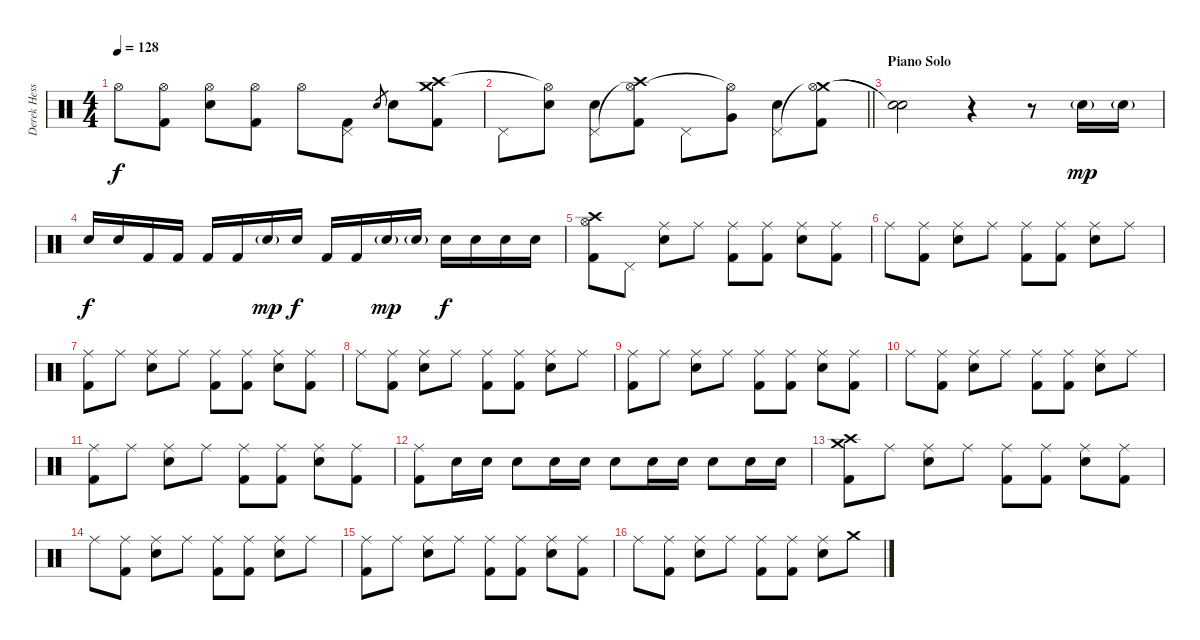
\track ("Derek Hess (Drums and Percussion)" "Derek Hess") {instrument percussion}
\staff {score}
\articulation defaults
\ts (4 4)
\tempo 128
\clef neutral
\ks c "Hi-Hat (open)".8{dy f}
("Hi-Hat (open)" "Kick (hit) 2").8 ("Snare (hit) 2" "Hi-Hat (open)").8 ("Hi-Hat (open)" "Kick (hit) 2").8 "Hi-Hat (open)".8 ("Pedal Hi-Hat (hit)" "Kick (hit) 2").8 "Snare (hit) 2".8{gr} "Snare (hit) 2".8 ("Crash medium (hit)" "Crash high (hit)" "Kick (hit) 2").8 |
\barLineRight lightlight "Pedal Hi-Hat (hit)".8
("Snare (hit) 2" "Hi-Hat (open)"{t}).8 ("Snare (hit) 2" "Pedal Hi-Hat (hit)").8 ("Crash high (hit)" "Hi-Hat (open)"{t} "Kick (hit) 2").8 "Pedal Hi-Hat (hit)".8 ("Very Low Tom (hit)" "Hi-Hat (open)"{t}).8 ("Snare (hit) 2" "Pedal Hi-Hat (hit)").8 ("Crash medium (hit)" "Hi-Hat (open)"{t} "Kick (hit) 2").8 |
\section ("" "Piano Solo")
("Snare (hit)"{t} "Snare (hit)"{t}).2 r.4 r.8 "Snare (hit) 2"{g}.16{dy mp} "Snare (hit) 2"{g}.16 |
"Snare (hit) 2".16{dy f} "Snare (hit) 2".16 "Kick (hit) 2".16 "Kick (hit) 2".16 "Kick (hit) 2".16 "Kick (hit) 2".16 "Snare (hit) 2"{g}.16{dy mp} "Snare (hit) 2".16{dy f} "Kick (hit) 2".16 "Kick (hit) 2".16 "Snare (hit) 2"{g}.16{dy mp} "Snare (hit) 2"{g}.16 "Snare (hit) 2".16{dy f} "Snare (hit) 2".16 "Snare (hit) 2".16 "Snare (hit) 2".16 |
("Crash high (hit)" "Hi-Hat (open)" "Kick (hit) 2").8 "Pedal Hi-Hat (hit)".8 ("Ride (middle)" "Snare (hit) 2").8 "Ride (middle)".8 ("Ride (middle)" "Kick (hit) 2").8 ("Ride (middle)" "Kick (hit) 2").8 ("Ride (middle)" "Snare (hit) 2").8 ("Ride (middle)" "Kick (hit) 2").8 |
"Ride (middle)".8 ("Ride (middle)" "Kick (hit) 2").8 ("Ride (middle)" "Snare (hit) 2").8 "Ride (middle)".8 ("Ride (middle)" "Kick (hit) 2").8 ("Ride (middle)" "Kick (hit) 2").8 ("Ride (middle)" "Snare (hit) 2").8 "Ride (middle)".8 |
("Ride (middle)" "Kick (hit) 2").8 "Ride (middle)".8 ("Ride (middle)" "Snare (hit) 2").8 "Ride (middle)".8 ("Ride (middle)" "Kick (hit) 2").8 ("Ride (middle)" "Kick (hit) 2").8 ("Ride (middle)" "Snare (hit) 2").8 ("Ride (middle)" "Kick (hit) 2").8 |
"Ride (middle)".8 ("Ride (middle)" "Kick (hit) 2").8 ("Ride (middle)" "Snare (hit) 2").8 "Ride (middle)".8 ("Ride (middle)" "Kick (hit) 2").8 ("Ride (middle)" "Kick (hit) 2").8 ("Ride (middle)" "Snare (hit) 2").8 "Ride (middle)".8 |
("Ride (middle)" "Kick (hit) 2").8 "Ride (middle)".8 ("Ride (middle)" "Snare (hit) 2").8 "Ride (middle)".8 ("Ride (middle)" "Kick (hit) 2").8 ("Ride (middle)" "Kick (hit) 2").8 ("Ride (middle)" "Snare (hit) 2").8 ("Ride (middle)" "Kick (hit) 2").8 |
"Ride (middle)".8 ("Ride (middle)" "Kick (hit) 2").8 ("Ride (middle)" "Snare (hit) 2").8 "Ride (middle)".8 ("Ride (middle)" "Kick (hit) 2").8 ("Ride (middle)" "Kick (hit) 2").8 ("Ride (middle)" "Snare (hit) 2").8 "Ride (middle)".8 |
("Ride (middle)" "Kick (hit) 2").8 "Ride (middle)".8 ("Ride (middle)" "Snare (hit) 2").8 "Ride (middle)".8 ("Ride (middle)" "Kick (hit) 2").8 ("Ride (middle)" "Kick (hit) 2").8 ("Ride (middle)" "Snare (hit) 2").8 ("Ride (middle)" "Kick (hit) 2").8 |
("Ride (middle)" "Kick (hit) 2").8 "Snare (hit) 2".16 "Snare (hit) 2".16 "Snare (hit) 2".8 "Snare (hit) 2".16 "Snare (hit) 2".16 "Snare (hit) 2".8 "Snare (hit) 2".16 "Snare (hit) 2".16 "Snare (hit) 2".8 "Snare (hit) 2".16 "Snare (hit) 2".16 |
("Crash medium (hit)" "Crash high (hit)" "Kick (hit) 2").8 "Ride (middle)".8 ("Ride (middle)" "Snare (hit) 2").8 "Ride (middle)".8 ("Ride (middle)" "Kick (hit) 2").8 ("Ride (middle)" "Kick (hit) 2").8 ("Ride (middle)" "Snare (hit) 2").8 ("Ride (middle)" "Kick (hit) 2").8 |
"Ride (middle)".8 ("Ride (middle)" "Kick (hit) 2").8 ("Ride (middle)" "Snare (hit) 2").8 "Ride (middle)".8 ("Ride (middle)" "Kick (hit) 2").8 ("Ride (middle)" "Kick (hit) 2").8 ("Ride (middle)" "Snare (hit) 2").8 "Ride (middle)".8 |
("Ride (middle)" "Kick (hit) 2").8 "Ride (middle)".8 ("Ride (middle)" "Snare (hit) 2").8 "Ride (middle)".8 ("Ride (middle)" "Kick (hit) 2").8 ("Ride (middle)" "Kick (hit) 2").8 ("Ride (middle)" "Snare (hit) 2").8 ("Ride (middle)" "Kick (hit) 2").8 |
"Ride (middle)".8 ("Ride (middle)" "Kick (hit) 2").8 ("Ride (middle)" "Snare (hit) 2").8 "Ride (middle)".8 ("Ride (middle)" "Kick (hit) 2").8 ("Ride (middle)" "Kick (hit) 2").8 ("Ride (middle)" "Snare (hit) 2").8 "Crash medium (hit)".8
